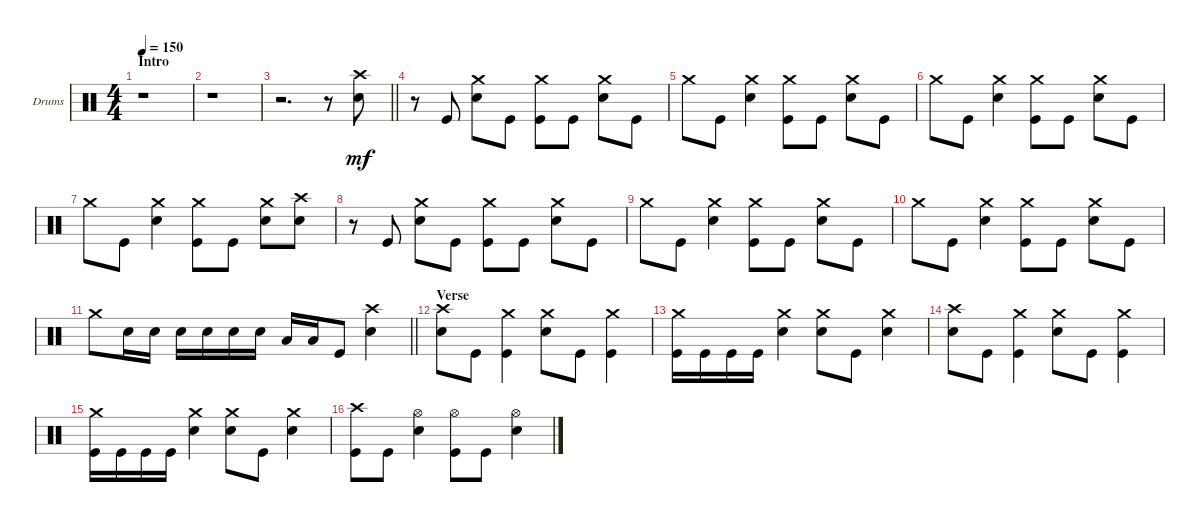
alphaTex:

\defaultSystemsLayout 4
\bracketExtendMode groupsimilarinstruments
\firstSystemTrackNameOrientation horizontal
\otherSystemsTrackNameOrientation horizontal
\track ("Drums" "Drums") {instrument percussion}
\staff {score}
\articulation defaults
\ts (4 4)
\section ("" "Intro")
\tempo 150
\clef neutral
\ks c
r.1{dy mf} |
r.1 |
\barLineRight lightlight
r.2{d} r.8 ("Snare (hit) 2" "Crash high (hit)").8 |
r.8 "Kick (hit)".8 ("Snare (hit) 2" "Crash medium (hit)").8 "Kick (hit)".8 ("Kick (hit)" "Crash medium (hit)").8 "Kick (hit)".8 ("Snare (hit) 2" "Crash medium (hit)").8 "Kick (hit)".8 |
"Crash medium (hit)".8 "Kick (hit)".8 ("Snare (hit) 2" "Crash medium (hit)").4 ("Kick (hit)" "Crash medium (hit)").8 "Kick (hit)".8 ("Snare (hit) 2" "Crash medium (hit)").8 "Kick (hit)".8 |
"Crash medium (hit)".8 "Kick (hit)".8 ("Snare (hit) 2" "Crash medium (hit)").4 ("Kick (hit)" "Crash medium (hit)").8 "Kick (hit)".8 ("Snare (hit) 2" "Crash medium (hit)").8 "Kick (hit)".8 |
"Crash medium (hit)".8 "Kick (hit)".8 ("Snare (hit) 2" "Crash medium (hit)").4 ("Kick (hit)" "Crash medium (hit)").8 "Kick (hit)".8 ("Snare (hit) 2" "Crash medium (hit)").8 ("Snare (hit) 2" "Crash high (hit)").8 |
r.8 "Kick (hit)".8 ("Snare (hit) 2" "Crash medium (hit)").8 "Kick (hit)".8 ("Kick (hit)" "Crash medium (hit)").8 "Kick (hit)".8 ("Snare (hit) 2" "Crash medium (hit)").8 "Kick (hit)".8 |
"Crash medium (hit)".8 "Kick (hit)".8 ("Snare (hit) 2" "Crash medium (hit)").4 ("Kick (hit)" "Crash medium (hit)").8 "Kick (hit)".8 ("Snare (hit) 2" "Crash medium (hit)").8 "Kick (hit)".8 |
"Crash medium (hit)".8 "Kick (hit)".8 ("Snare (hit) 2" "Crash medium (hit)").4 ("Kick (hit)" "Crash medium (hit)").8 "Kick (hit)".8 ("Snare (hit) 2" "Crash medium (hit)").8 "Kick (hit)".8 |
\barLineRight lightlight "Crash medium (hit)".8 "Snare (hit) 2".16 "Snare (hit) 2".16 "Snare (hit) 2".16 "Snare (hit) 2".16 "Snare (hit) 2".16 "Snare (hit) 2".16 "Low Tom (hit)".16 "Low Tom (hit)".16 "Kick (hit)".8
("Snare (hit) 2" "Crash high (hit)").4 |
\section ("" "Verse")
("Crash high (hit)" "Snare (hit) 2").8 "Kick (hit)".8 ("Crash medium (hit)" "Kick (hit)").4 ("Crash medium (hit)" "Snare (hit) 2").8 "Kick (hit)".8 ("Crash medium (hit)" "Kick (hit)").4 |
("Kick (hit)" "Crash medium (hit)").16 "Kick (hit)".16 "Kick (hit)".16 "Kick (hit)".16 ("Snare (hit) 2" "Crash medium (hit)").4 ("Crash medium (hit)" "Snare (hit) 2").8 "Kick (hit)".8 ("Snare (hit) 2" "Crash medium (hit)").4 |
("Crash high (hit)" "Snare (hit) 2").8 "Kick (hit)".8 ("Crash medium (hit)" "Kick (hit)").4 ("Crash medium (hit)" "Snare (hit) 2").8 "Kick (hit)".8 ("Crash medium (hit)" "Kick (hit)").4 |
("Kick (hit)" "Crash medium (hit)").16 "Kick (hit)".16 "Kick (hit)".16 "Kick (hit)".16 ("Snare (hit) 2" "Crash medium (hit)").4 ("Crash medium (hit)" "Snare (hit) 2").8 "Kick (hit)".8 ("Snare (hit) 2" "Crash medium (hit)").4 |
("Kick (hit)" "Crash high (hit)").8 "Kick (hit)".8 ("Snare (hit) 2" "Hi-Hat (open)").4 ("Kick (hit)" "Hi-Hat (open)").8 "Kick (hit)".8 ("Snare (hit) 2" "Hi-Hat (open)").4
